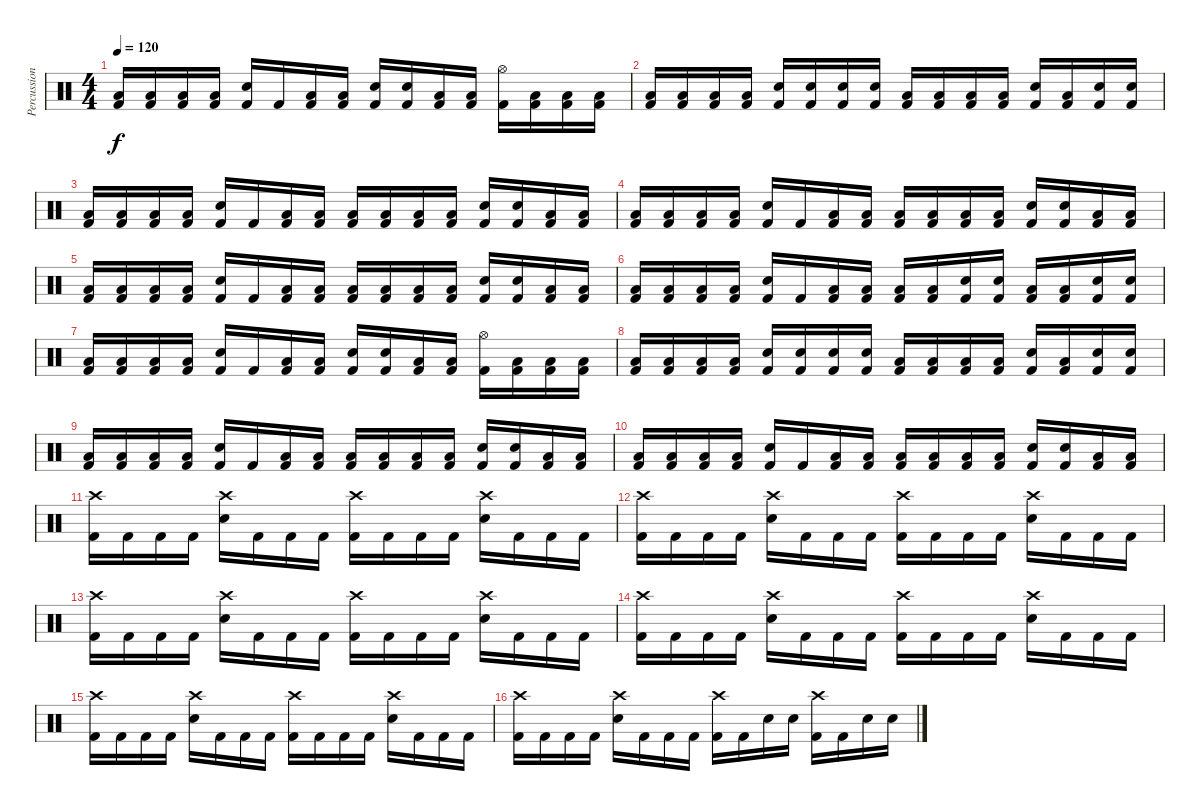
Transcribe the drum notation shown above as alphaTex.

\track ("Percussion" "Percussion") {instrument percussion}
\staff {score}
\articulation defaults
\ts (4 4)
\tempo 120
\clef neutral
\ks c
("Low Tom (hit)" "Kick (hit) 2").16{dy f} ("Low Tom (hit)" "Kick (hit) 2").16 ("Low Tom (hit)" "Kick (hit) 2").16 ("Low Tom (hit)" "Kick (hit) 2").16 ("Electric Snare (hit)" "Kick (hit) 2").16 "Kick (hit) 2".16 ("Low Tom (hit)" "Kick (hit) 2").16 ("Low Tom (hit)" "Kick (hit) 2").16 ("Electric Snare (hit)" "Kick (hit) 2").16 ("Electric Snare (hit)" "Kick (hit) 2").16 ("Low Tom (hit)" "Kick (hit) 2").16 ("Low Tom (hit)" "Kick (hit) 2").16 ("Hi-Hat (open)" "Kick (hit) 2").16 ("Low Tom (hit)" "Kick (hit) 2").16 ("Low Tom (hit)" "Kick (hit) 2").16 ("Low Tom (hit)" "Kick (hit) 2").16 |
("Low Tom (hit)" "Kick (hit) 2").16 ("Low Tom (hit)" "Kick (hit) 2").16 ("Low Tom (hit)" "Kick (hit) 2").16 ("Low Tom (hit)" "Kick (hit) 2").16 ("Electric Snare (hit)" "Kick (hit) 2").16 ("Electric Snare (hit)" "Kick (hit) 2").16 ("Electric Snare (hit)" "Kick (hit) 2").16 ("Electric Snare (hit)" "Kick (hit) 2").16 ("Low Tom (hit)" "Kick (hit) 2").16 ("Low Tom (hit)" "Kick (hit) 2").16 ("Low Tom (hit)" "Kick (hit) 2").16 ("Low Tom (hit)" "Kick (hit) 2").16 ("Electric Snare (hit)" "Kick (hit) 2").16 ("Low Tom (hit)" "Kick (hit) 2").16 ("Electric Snare (hit)" "Kick (hit) 2").16 ("Electric Snare (hit)" "Kick (hit) 2").16 |
("Low Tom (hit)" "Kick (hit) 2").16 ("Low Tom (hit)" "Kick (hit) 2").16 ("Low Tom (hit)" "Kick (hit) 2").16 ("Low Tom (hit)" "Kick (hit) 2").16 ("Electric Snare (hit)" "Kick (hit) 2").16 "Kick (hit) 2".16 ("Low Tom (hit)" "Kick (hit) 2").16 ("Low Tom (hit)" "Kick (hit) 2").16 ("Low Tom (hit)" "Kick (hit) 2").16 ("Low Tom (hit)" "Kick (hit) 2").16 ("Low Tom (hit)" "Kick (hit) 2").16 ("Low Tom (hit)" "Kick (hit) 2").16 ("Electric Snare (hit)" "Kick (hit) 2").16 ("Electric Snare (hit)" "Kick (hit) 2").16 ("Low Tom (hit)" "Kick (hit) 2").16 ("Low Tom (hit)" "Kick (hit) 2").16 |
("Low Tom (hit)" "Kick (hit) 2").16 ("Low Tom (hit)" "Kick (hit) 2").16 ("Low Tom (hit)" "Kick (hit) 2").16 ("Low Tom (hit)" "Kick (hit) 2").16 ("Electric Snare (hit)" "Kick (hit) 2").16 "Kick (hit) 2".16 ("Low Tom (hit)" "Kick (hit) 2").16 ("Low Tom (hit)" "Kick (hit) 2").16 ("Low Tom (hit)" "Kick (hit) 2").16 ("Low Tom (hit)" "Kick (hit) 2").16 ("Low Tom (hit)" "Kick (hit) 2").16 ("Low Tom (hit)" "Kick (hit) 2").16 ("Electric Snare (hit)" "Kick (hit) 2").16 ("Electric Snare (hit)" "Kick (hit) 2").16 ("Low Tom (hit)" "Kick (hit) 2").16 ("Low Tom (hit)" "Kick (hit) 2").16 |
("Low Tom (hit)" "Kick (hit) 2").16 ("Low Tom (hit)" "Kick (hit) 2").16 ("Low Tom (hit)" "Kick (hit) 2").16 ("Low Tom (hit)" "Kick (hit) 2").16 ("Electric Snare (hit)" "Kick (hit) 2").16 "Kick (hit) 2".16 ("Low Tom (hit)" "Kick (hit) 2").16 ("Low Tom (hit)" "Kick (hit) 2").16 ("Low Tom (hit)" "Kick (hit) 2").16 ("Low Tom (hit)" "Kick (hit) 2").16 ("Low Tom (hit)" "Kick (hit) 2").16 ("Low Tom (hit)" "Kick (hit) 2").16 ("Electric Snare (hit)" "Kick (hit) 2").16 ("Electric Snare (hit)" "Kick (hit) 2").16 ("Low Tom (hit)" "Kick (hit) 2").16 ("Low Tom (hit)" "Kick (hit) 2").16 |
("Low Tom (hit)" "Kick (hit) 2").16 ("Low Tom (hit)" "Kick (hit) 2").16 ("Low Tom (hit)" "Kick (hit) 2").16 ("Low Tom (hit)" "Kick (hit) 2").16 ("Electric Snare (hit)" "Kick (hit) 2").16 "Kick (hit) 2".16 ("Low Tom (hit)" "Kick (hit) 2").16 ("Low Tom (hit)" "Kick (hit) 2").16 ("Low Tom (hit)" "Kick (hit) 2").16 ("Low Tom (hit)" "Kick (hit) 2").16 ("Electric Snare (hit)" "Kick (hit) 2").16 ("Electric Snare (hit)" "Kick (hit) 2").16 ("Low Tom (hit)" "Kick (hit) 2").16 ("Low Tom (hit)" "Kick (hit) 2").16 ("Electric Snare (hit)" "Kick (hit) 2").16 ("Electric Snare (hit)" "Kick (hit) 2").16 |
("Low Tom (hit)" "Kick (hit) 2").16 ("Low Tom (hit)" "Kick (hit) 2").16 ("Low Tom (hit)" "Kick (hit) 2").16 ("Low Tom (hit)" "Kick (hit) 2").16 ("Electric Snare (hit)" "Kick (hit) 2").16 "Kick (hit) 2".16 ("Low Tom (hit)" "Kick (hit) 2").16 ("Low Tom (hit)" "Kick (hit) 2").16 ("Electric Snare (hit)" "Kick (hit) 2").16 ("Electric Snare (hit)" "Kick (hit) 2").16 ("Low Tom (hit)" "Kick (hit) 2").16 ("Low Tom (hit)" "Kick (hit) 2").16 ("Hi-Hat (open)" "Kick (hit) 2").16 ("Low Tom (hit)" "Kick (hit) 2").16 ("Low Tom (hit)" "Kick (hit) 2").16 ("Low Tom (hit)" "Kick (hit) 2").16 |
("Low Tom (hit)" "Kick (hit) 2").16 ("Low Tom (hit)" "Kick (hit) 2").16 ("Low Tom (hit)" "Kick (hit) 2").16 ("Low Tom (hit)" "Kick (hit) 2").16 ("Electric Snare (hit)" "Kick (hit) 2").16 ("Electric Snare (hit)" "Kick (hit) 2").16 ("Electric Snare (hit)" "Kick (hit) 2").16 ("Electric Snare (hit)" "Kick (hit) 2").16 ("Low Tom (hit)" "Kick (hit) 2").16 ("Low Tom (hit)" "Kick (hit) 2").16 ("Low Tom (hit)" "Kick (hit) 2").16 ("Low Tom (hit)" "Kick (hit) 2").16 ("Electric Snare (hit)" "Kick (hit) 2").16 ("Low Tom (hit)" "Kick (hit) 2").16 ("Electric Snare (hit)" "Kick (hit) 2").16 ("Electric Snare (hit)" "Kick (hit) 2").16 |
("Low Tom (hit)" "Kick (hit) 2").16 ("Low Tom (hit)" "Kick (hit) 2").16 ("Low Tom (hit)" "Kick (hit) 2").16 ("Low Tom (hit)" "Kick (hit) 2").16 ("Electric Snare (hit)" "Kick (hit) 2").16 "Kick (hit) 2".16 ("Low Tom (hit)" "Kick (hit) 2").16 ("Low Tom (hit)" "Kick (hit) 2").16 ("Low Tom (hit)" "Kick (hit) 2").16 ("Low Tom (hit)" "Kick (hit) 2").16 ("Low Tom (hit)" "Kick (hit) 2").16 ("Low Tom (hit)" "Kick (hit) 2").16 ("Electric Snare (hit)" "Kick (hit) 2").16 ("Electric Snare (hit)" "Kick (hit) 2").16 ("Low Tom (hit)" "Kick (hit) 2").16 ("Low Tom (hit)" "Kick (hit) 2").16 |
("Low Tom (hit)" "Kick (hit) 2").16 ("Low Tom (hit)" "Kick (hit) 2").16 ("Low Tom (hit)" "Kick (hit) 2").16 ("Low Tom (hit)" "Kick (hit) 2").16 ("Electric Snare (hit)" "Kick (hit) 2").16 "Kick (hit) 2".16 ("Low Tom (hit)" "Kick (hit) 2").16 ("Low Tom (hit)" "Kick (hit) 2").16 ("Low Tom (hit)" "Kick (hit) 2").16 ("Low Tom (hit)" "Kick (hit) 2").16 ("Low Tom (hit)" "Kick (hit) 2").16 ("Low Tom (hit)" "Kick (hit) 2").16 ("Electric Snare (hit)" "Kick (hit) 2").16 ("Electric Snare (hit)" "Kick (hit) 2").16 ("Low Tom (hit)" "Kick (hit) 2").16 ("Low Tom (hit)" "Kick (hit) 2").16 |
("Crash high (hit)" "Kick (hit) 2").16 "Kick (hit) 2".16 "Kick (hit) 2".16 "Kick (hit) 2".16 ("Crash high (hit)" "Electric Snare (hit)").16 "Kick (hit) 2".16 "Kick (hit) 2".16 "Kick (hit) 2".16 ("Crash high (hit)" "Kick (hit) 2").16 "Kick (hit) 2".16 "Kick (hit) 2".16 "Kick (hit) 2".16 ("Crash high (hit)" "Electric Snare (hit)").16 "Kick (hit) 2".16 "Kick (hit) 2".16 "Kick (hit) 2".16 |
("Crash high (hit)" "Kick (hit) 2").16 "Kick (hit) 2".16 "Kick (hit) 2".16 "Kick (hit) 2".16 ("Crash high (hit)" "Electric Snare (hit)").16 "Kick (hit) 2".16 "Kick (hit) 2".16 "Kick (hit) 2".16 ("Crash high (hit)" "Kick (hit) 2").16 "Kick (hit) 2".16 "Kick (hit) 2".16 "Kick (hit) 2".16 ("Crash high (hit)" "Electric Snare (hit)").16 "Kick (hit) 2".16 "Kick (hit) 2".16 "Kick (hit) 2".16 |
("Crash high (hit)" "Kick (hit) 2").16 "Kick (hit) 2".16 "Kick (hit) 2".16 "Kick (hit) 2".16 ("Crash high (hit)" "Electric Snare (hit)").16 "Kick (hit) 2".16 "Kick (hit) 2".16 "Kick (hit) 2".16 ("Crash high (hit)" "Kick (hit) 2").16 "Kick (hit) 2".16 "Kick (hit) 2".16 "Kick (hit) 2".16 ("Crash high (hit)" "Electric Snare (hit)").16 "Kick (hit) 2".16 "Kick (hit) 2".16 "Kick (hit) 2".16 |
("Crash high (hit)" "Kick (hit) 2").16 "Kick (hit) 2".16 "Kick (hit) 2".16 "Kick (hit) 2".16 ("Crash high (hit)" "Electric Snare (hit)").16 "Kick (hit) 2".16 "Kick (hit) 2".16 "Kick (hit) 2".16 ("Crash high (hit)" "Kick (hit) 2").16 "Kick (hit) 2".16 "Kick (hit) 2".16 "Kick (hit) 2".16 ("Crash high (hit)" "Electric Snare (hit)").16 "Kick (hit) 2".16 "Kick (hit) 2".16 "Kick (hit) 2".16 |
("Crash high (hit)" "Kick (hit) 2").16 "Kick (hit) 2".16 "Kick (hit) 2".16 "Kick (hit) 2".16 ("Crash high (hit)" "Electric Snare (hit)").16 "Kick (hit) 2".16 "Kick (hit) 2".16 "Kick (hit) 2".16 ("Crash high (hit)" "Kick (hit) 2").16 "Kick (hit) 2".16 "Kick (hit) 2".16 "Kick (hit) 2".16 ("Crash high (hit)" "Electric Snare (hit)").16 "Kick (hit) 2".16 "Kick (hit) 2".16 "Kick (hit) 2".16 |
("Crash high (hit)" "Kick (hit) 2").16 "Kick (hit) 2".16 "Kick (hit) 2".16 "Kick (hit) 2".16 ("Crash high (hit)" "Electric Snare (hit)").16 "Kick (hit) 2".16 "Kick (hit) 2".16 "Kick (hit) 2".16 ("Crash high (hit)" "Kick (hit) 2").16 "Kick (hit) 2".16 "Electric Snare (hit)".16 "Electric Snare (hit)".16 ("Crash high (hit)" "Kick (hit) 2").16 "Kick (hit) 2".16 "Electric Snare (hit)".16 "Electric Snare (hit)".16
